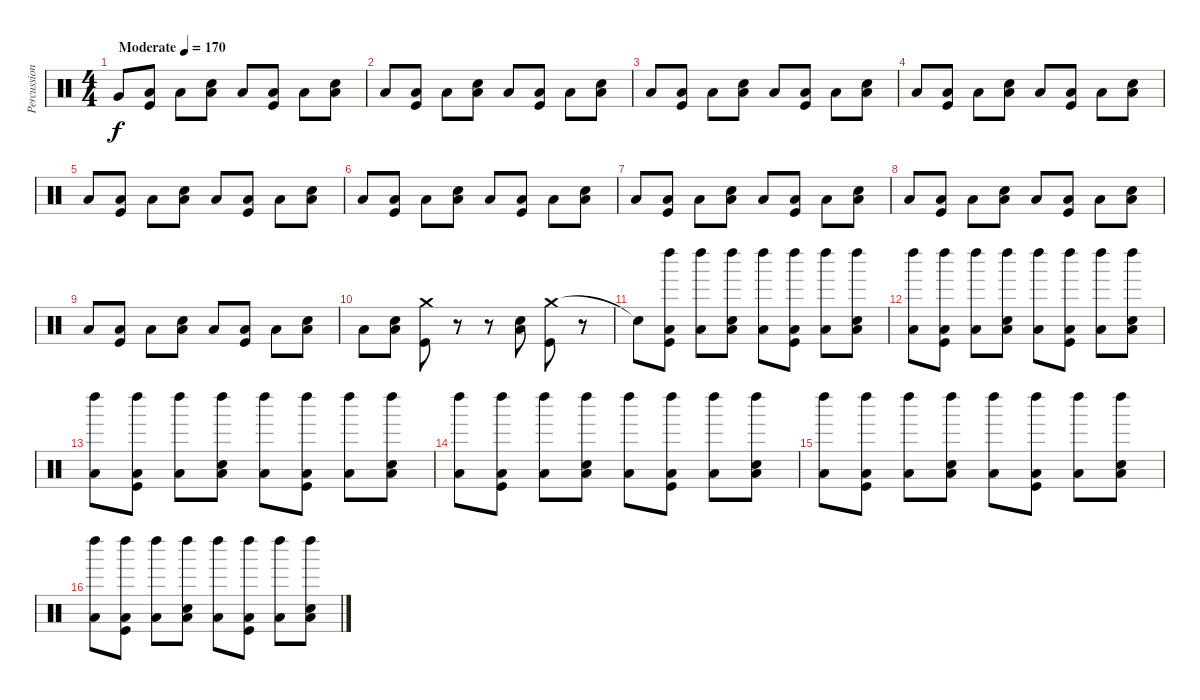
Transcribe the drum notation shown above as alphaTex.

\track ("Percussion" "Percussion") {instrument percussion}
\staff {score}
\articulation defaults
\ts (4 4)
\tempo (170 "Moderate")
\clef neutral
\ks c "Very Low Tom (hit)".8{dy f}
("Low Floor Tom (hit)" "Kick (hit)").8 "Low Floor Tom (hit)".8 ("Low Floor Tom (hit)" "Electric Snare (hit)").8 "Low Floor Tom (hit)".8 ("Low Floor Tom (hit)" "Kick (hit)").8 "Low Floor Tom (hit)".8 ("Low Floor Tom (hit)" "Electric Snare (hit)").8 |
"Low Floor Tom (hit)".8 ("Low Floor Tom (hit)" "Kick (hit)").8 "Low Floor Tom (hit)".8 ("Low Floor Tom (hit)" "Electric Snare (hit)").8 "Low Floor Tom (hit)".8 ("Low Floor Tom (hit)" "Kick (hit)").8 "Low Floor Tom (hit)".8 ("Low Floor Tom (hit)" "Electric Snare (hit)").8 |
"Low Floor Tom (hit)".8 ("Low Floor Tom (hit)" "Kick (hit)").8 "Low Floor Tom (hit)".8 ("Low Floor Tom (hit)" "Electric Snare (hit)").8 "Low Floor Tom (hit)".8 ("Low Floor Tom (hit)" "Kick (hit)").8 "Low Floor Tom (hit)".8 ("Low Floor Tom (hit)" "Electric Snare (hit)").8 |
"Low Floor Tom (hit)".8 ("Low Floor Tom (hit)" "Kick (hit)").8 "Low Floor Tom (hit)".8 ("Low Floor Tom (hit)" "Electric Snare (hit)").8 "Low Floor Tom (hit)".8 ("Low Floor Tom (hit)" "Kick (hit)").8 "Low Floor Tom (hit)".8 ("Low Floor Tom (hit)" "Electric Snare (hit)").8 |
"Low Floor Tom (hit)".8 ("Low Floor Tom (hit)" "Kick (hit)").8 "Low Floor Tom (hit)".8 ("Low Floor Tom (hit)" "Electric Snare (hit)").8 "Low Floor Tom (hit)".8 ("Low Floor Tom (hit)" "Kick (hit)").8 "Low Floor Tom (hit)".8 ("Low Floor Tom (hit)" "Electric Snare (hit)").8 |
"Low Floor Tom (hit)".8 ("Low Floor Tom (hit)" "Kick (hit)").8 "Low Floor Tom (hit)".8 ("Low Floor Tom (hit)" "Electric Snare (hit)").8 "Low Floor Tom (hit)".8 ("Low Floor Tom (hit)" "Kick (hit)").8 "Low Floor Tom (hit)".8 ("Low Floor Tom (hit)" "Electric Snare (hit)").8 |
"Low Floor Tom (hit)".8 ("Low Floor Tom (hit)" "Kick (hit)").8 "Low Floor Tom (hit)".8 ("Low Floor Tom (hit)" "Electric Snare (hit)").8 "Low Floor Tom (hit)".8 ("Low Floor Tom (hit)" "Kick (hit)").8 "Low Floor Tom (hit)".8 ("Low Floor Tom (hit)" "Electric Snare (hit)").8 |
"Low Floor Tom (hit)".8 ("Low Floor Tom (hit)" "Kick (hit)").8 "Low Floor Tom (hit)".8 ("Low Floor Tom (hit)" "Electric Snare (hit)").8 "Low Floor Tom (hit)".8 ("Low Floor Tom (hit)" "Kick (hit)").8 "Low Floor Tom (hit)".8 ("Low Floor Tom (hit)" "Electric Snare (hit)").8 |
"Low Floor Tom (hit)".8 ("Low Floor Tom (hit)" "Kick (hit)").8 "Low Floor Tom (hit)".8 ("Low Floor Tom (hit)" "Electric Snare (hit)").8 "Low Floor Tom (hit)".8 ("Low Floor Tom (hit)" "Kick (hit)").8 "Low Floor Tom (hit)".8 ("Low Floor Tom (hit)" "Electric Snare (hit)").8 |
"Low Floor Tom (hit)".8 ("Low Floor Tom (hit)" "Electric Snare (hit)").8 ("Crash medium (hit)" "Kick (hit)").8 r.8 r.8 ("Low Floor Tom (hit)" "Electric Snare (hit)").8 ("Crash medium (hit)" "Kick (hit)").8 r.8 |
"Snare (hit)"{t}.8 ("Left Maraca (hit)" "Low Floor Tom (hit)" "Kick (hit)").8 ("Left Maraca (hit)" "Low Floor Tom (hit)").8 ("Left Maraca (hit)" "Low Floor Tom (hit)" "Electric Snare (hit)").8 ("Left Maraca (hit)" "Low Floor Tom (hit)").8 ("Left Maraca (hit)" "Low Floor Tom (hit)" "Kick (hit)").8 ("Left Maraca (hit)" "Low Floor Tom (hit)").8 ("Left Maraca (hit)" "Low Floor Tom (hit)" "Electric Snare (hit)").8 |
("Left Maraca (hit)" "Low Floor Tom (hit)").8 ("Left Maraca (hit)" "Low Floor Tom (hit)" "Kick (hit)").8 ("Left Maraca (hit)" "Low Floor Tom (hit)").8 ("Left Maraca (hit)" "Low Floor Tom (hit)" "Electric Snare (hit)").8 ("Left Maraca (hit)" "Low Floor Tom (hit)").8 ("Left Maraca (hit)" "Low Floor Tom (hit)" "Kick (hit)").8 ("Left Maraca (hit)" "Low Floor Tom (hit)").8 ("Left Maraca (hit)" "Low Floor Tom (hit)" "Electric Snare (hit)").8 |
("Left Maraca (hit)" "Low Floor Tom (hit)").8 ("Left Maraca (hit)" "Low Floor Tom (hit)" "Kick (hit)").8 ("Left Maraca (hit)" "Low Floor Tom (hit)").8 ("Left Maraca (hit)" "Low Floor Tom (hit)" "Electric Snare (hit)").8 ("Left Maraca (hit)" "Low Floor Tom (hit)").8 ("Left Maraca (hit)" "Low Floor Tom (hit)" "Kick (hit)").8 ("Left Maraca (hit)" "Low Floor Tom (hit)").8 ("Left Maraca (hit)" "Low Floor Tom (hit)" "Electric Snare (hit)").8 |
("Left Maraca (hit)" "Low Floor Tom (hit)").8 ("Left Maraca (hit)" "Low Floor Tom (hit)" "Kick (hit)").8 ("Left Maraca (hit)" "Low Floor Tom (hit)").8 ("Left Maraca (hit)" "Low Floor Tom (hit)" "Electric Snare (hit)").8 ("Left Maraca (hit)" "Low Floor Tom (hit)").8 ("Left Maraca (hit)" "Low Floor Tom (hit)" "Kick (hit)").8 ("Left Maraca (hit)" "Low Floor Tom (hit)").8 ("Left Maraca (hit)" "Low Floor Tom (hit)" "Electric Snare (hit)").8 |
("Left Maraca (hit)" "Low Floor Tom (hit)").8 ("Left Maraca (hit)" "Low Floor Tom (hit)" "Kick (hit)").8 ("Left Maraca (hit)" "Low Floor Tom (hit)").8 ("Left Maraca (hit)" "Low Floor Tom (hit)" "Electric Snare (hit)").8 ("Left Maraca (hit)" "Low Floor Tom (hit)").8 ("Left Maraca (hit)" "Low Floor Tom (hit)" "Kick (hit)").8 ("Left Maraca (hit)" "Low Floor Tom (hit)").8 ("Left Maraca (hit)" "Low Floor Tom (hit)" "Electric Snare (hit)").8 |
("Left Maraca (hit)" "Low Floor Tom (hit)").8 ("Left Maraca (hit)" "Low Floor Tom (hit)" "Kick (hit)").8 ("Left Maraca (hit)" "Low Floor Tom (hit)").8 ("Left Maraca (hit)" "Low Floor Tom (hit)" "Electric Snare (hit)").8 ("Left Maraca (hit)" "Low Floor Tom (hit)").8 ("Left Maraca (hit)" "Low Floor Tom (hit)" "Kick (hit)").8 ("Left Maraca (hit)" "Low Floor Tom (hit)").8 ("Left Maraca (hit)" "Low Floor Tom (hit)" "Electric Snare (hit)").8
